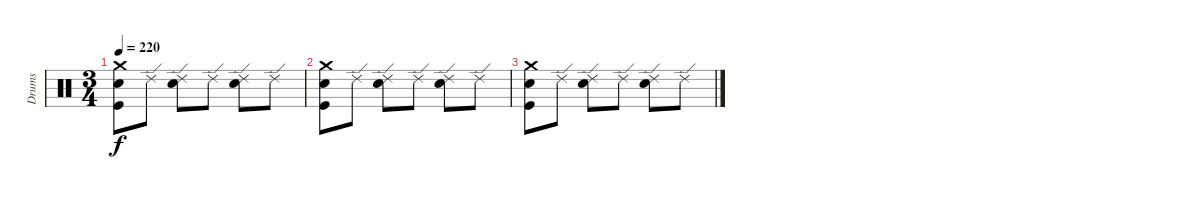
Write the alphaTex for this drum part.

\track ("Drums" "Drums") {instrument percussion}
\staff {score}
\articulation defaults
\ts (3 4)
\tempo 220
\clef neutral
\ks c
("Crash medium (hit)" "Electric Snare (hit)" "Kick (hit)").8{dy f} "Ride (edge) 2".8 ("Ride (edge) 2" "Electric Snare (hit)").8 "Ride (edge) 2".8 ("Ride (edge) 2" "Electric Snare (hit)").8 "Ride (edge) 2".8 |
("Crash medium (hit)" "Electric Snare (hit)" "Kick (hit)").8 "Ride (edge) 2".8 ("Ride (edge) 2" "Electric Snare (hit)").8 "Ride (edge) 2".8 ("Ride (edge) 2" "Electric Snare (hit)").8 "Ride (edge) 2".8 |
("Crash medium (hit)" "Electric Snare (hit)" "Kick (hit)").8 "Ride (edge) 2".8 ("Ride (edge) 2" "Electric Snare (hit)").8 "Ride (edge) 2".8 ("Ride (edge) 2" "Electric Snare (hit)").8 "Ride (edge) 2".8
